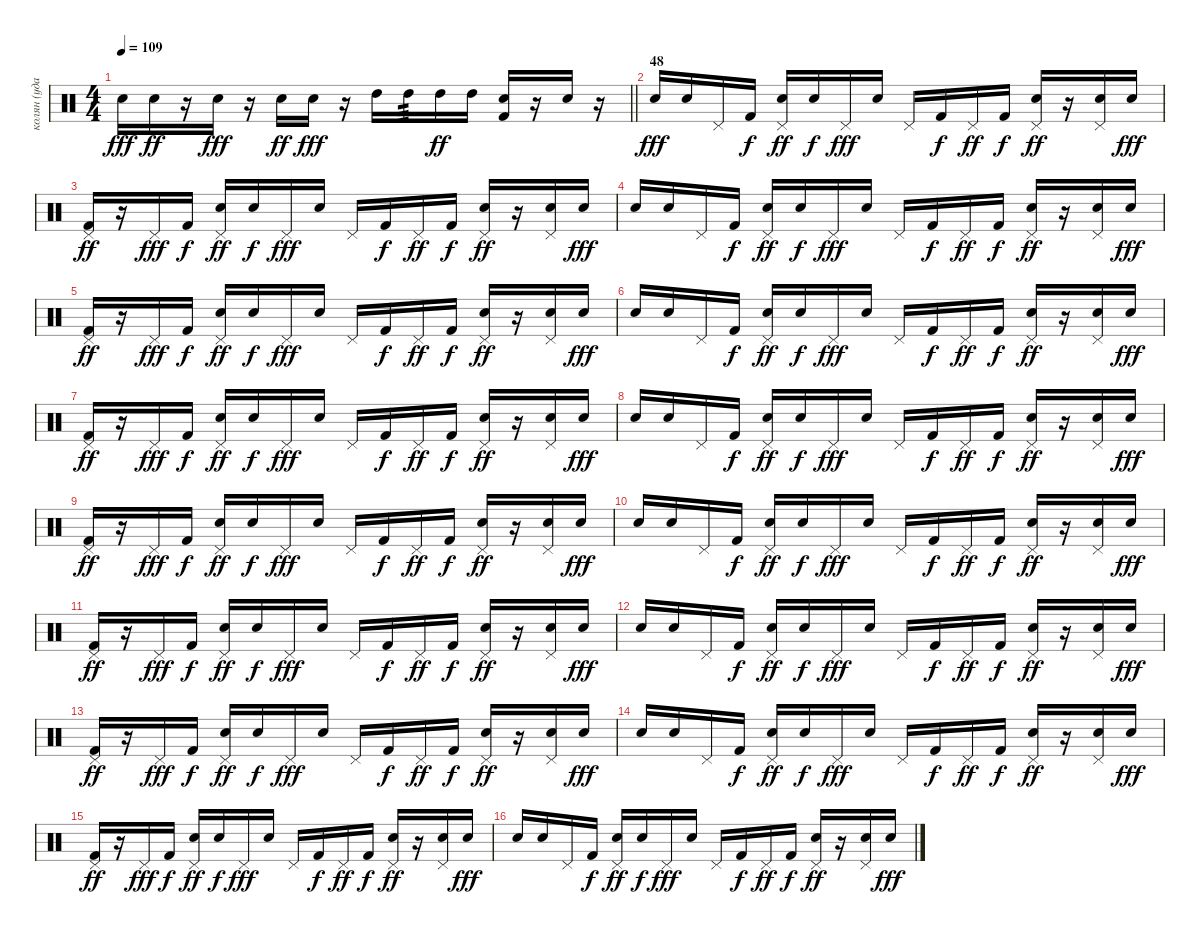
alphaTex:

\track ("колян (ударные) v2.0" "колян (уда") {instrument percussion}
\staff
\articulation defaults
\ts (4 4)
\tempo 109
\clef neutral
\barLineRight lightlight
\ks c "Electric Snare (hit)".16{dy fff} "Electric Snare (hit)".16{dy ff}
r.16 "Electric Snare (hit)".16{dy fff} r.16 "Electric Snare (hit)".16{dy ff} "Electric Snare (hit)".16{dy fff} r.16 "High Tom (hit)".16 "High Tom (hit)".16{tp 3} "High Tom (hit)".16{dy ff} "High Tom (hit)".16 ("Snare (hit) 2" "Kick (hit) 2").16 r.16 "Electric Snare (hit)".16 r.16 |
\section ("" "48")
"Snare (hit) 2".16{dy fff} "Snare (hit) 2".16 "Pedal Hi-Hat (hit)".16 "Kick (hit) 2".16{dy f} ("Snare (hit) 2" "Pedal Hi-Hat (hit)").16{dy ff} "Snare (hit) 2".16{dy f} "Pedal Hi-Hat (hit)".16{dy fff} "Snare (hit) 2".16 "Pedal Hi-Hat (hit)".16 "Kick (hit) 2".16{dy f} "Pedal Hi-Hat (hit)".16{dy ff} "Kick (hit) 2".16{dy f} ("Snare (hit) 2" "Pedal Hi-Hat (hit)").16{dy ff} r.16 ("Snare (hit) 2" "Pedal Hi-Hat (hit)").16 "Snare (hit) 2".16{dy fff} |
("Pedal Hi-Hat (hit)" "Kick (hit) 2").16{dy ff} r.16 "Pedal Hi-Hat (hit)".16{dy fff} "Kick (hit) 2".16{dy f} ("Snare (hit) 2" "Pedal Hi-Hat (hit)").16{dy ff} "Snare (hit) 2".16{dy f} "Pedal Hi-Hat (hit)".16{dy fff} "Snare (hit) 2".16 "Pedal Hi-Hat (hit)".16 "Kick (hit) 2".16{dy f} "Pedal Hi-Hat (hit)".16{dy ff} "Kick (hit) 2".16{dy f} ("Snare (hit) 2" "Pedal Hi-Hat (hit)").16{dy ff} r.16 ("Snare (hit) 2" "Pedal Hi-Hat (hit)").16 "Snare (hit) 2".16{dy fff} |
"Snare (hit) 2".16 "Snare (hit) 2".16 "Pedal Hi-Hat (hit)".16 "Kick (hit) 2".16{dy f} ("Snare (hit) 2" "Pedal Hi-Hat (hit)").16{dy ff} "Snare (hit) 2".16{dy f} "Pedal Hi-Hat (hit)".16{dy fff} "Snare (hit) 2".16 "Pedal Hi-Hat (hit)".16 "Kick (hit) 2".16{dy f} "Pedal Hi-Hat (hit)".16{dy ff} "Kick (hit) 2".16{dy f} ("Snare (hit) 2" "Pedal Hi-Hat (hit)").16{dy ff} r.16 ("Snare (hit) 2" "Pedal Hi-Hat (hit)").16 "Snare (hit) 2".16{dy fff} |
("Pedal Hi-Hat (hit)" "Kick (hit) 2").16{dy ff} r.16 "Pedal Hi-Hat (hit)".16{dy fff} "Kick (hit) 2".16{dy f} ("Snare (hit) 2" "Pedal Hi-Hat (hit)").16{dy ff} "Snare (hit) 2".16{dy f} "Pedal Hi-Hat (hit)".16{dy fff} "Snare (hit) 2".16 "Pedal Hi-Hat (hit)".16 "Kick (hit) 2".16{dy f} "Pedal Hi-Hat (hit)".16{dy ff} "Kick (hit) 2".16{dy f} ("Snare (hit) 2" "Pedal Hi-Hat (hit)").16{dy ff} r.16 ("Snare (hit) 2" "Pedal Hi-Hat (hit)").16 "Snare (hit) 2".16{dy fff} |
"Snare (hit) 2".16 "Snare (hit) 2".16 "Pedal Hi-Hat (hit)".16 "Kick (hit) 2".16{dy f} ("Snare (hit) 2" "Pedal Hi-Hat (hit)").16{dy ff} "Snare (hit) 2".16{dy f} "Pedal Hi-Hat (hit)".16{dy fff} "Snare (hit) 2".16 "Pedal Hi-Hat (hit)".16 "Kick (hit) 2".16{dy f} "Pedal Hi-Hat (hit)".16{dy ff} "Kick (hit) 2".16{dy f} ("Snare (hit) 2" "Pedal Hi-Hat (hit)").16{dy ff} r.16 ("Snare (hit) 2" "Pedal Hi-Hat (hit)").16 "Snare (hit) 2".16{dy fff} |
("Pedal Hi-Hat (hit)" "Kick (hit) 2").16{dy ff} r.16 "Pedal Hi-Hat (hit)".16{dy fff} "Kick (hit) 2".16{dy f} ("Snare (hit) 2" "Pedal Hi-Hat (hit)").16{dy ff} "Snare (hit) 2".16{dy f} "Pedal Hi-Hat (hit)".16{dy fff} "Snare (hit) 2".16 "Pedal Hi-Hat (hit)".16 "Kick (hit) 2".16{dy f} "Pedal Hi-Hat (hit)".16{dy ff} "Kick (hit) 2".16{dy f} ("Snare (hit) 2" "Pedal Hi-Hat (hit)").16{dy ff} r.16 ("Snare (hit) 2" "Pedal Hi-Hat (hit)").16 "Snare (hit) 2".16{dy fff} |
"Snare (hit) 2".16 "Snare (hit) 2".16 "Pedal Hi-Hat (hit)".16 "Kick (hit) 2".16{dy f} ("Snare (hit) 2" "Pedal Hi-Hat (hit)").16{dy ff} "Snare (hit) 2".16{dy f} "Pedal Hi-Hat (hit)".16{dy fff} "Snare (hit) 2".16 "Pedal Hi-Hat (hit)".16 "Kick (hit) 2".16{dy f} "Pedal Hi-Hat (hit)".16{dy ff} "Kick (hit) 2".16{dy f} ("Snare (hit) 2" "Pedal Hi-Hat (hit)").16{dy ff} r.16 ("Snare (hit) 2" "Pedal Hi-Hat (hit)").16 "Snare (hit) 2".16{dy fff} |
("Pedal Hi-Hat (hit)" "Kick (hit) 2").16{dy ff} r.16 "Pedal Hi-Hat (hit)".16{dy fff} "Kick (hit) 2".16{dy f} ("Snare (hit) 2" "Pedal Hi-Hat (hit)").16{dy ff} "Snare (hit) 2".16{dy f} "Pedal Hi-Hat (hit)".16{dy fff} "Snare (hit) 2".16 "Pedal Hi-Hat (hit)".16 "Kick (hit) 2".16{dy f} "Pedal Hi-Hat (hit)".16{dy ff} "Kick (hit) 2".16{dy f} ("Snare (hit) 2" "Pedal Hi-Hat (hit)").16{dy ff} r.16 ("Snare (hit) 2" "Pedal Hi-Hat (hit)").16 "Snare (hit) 2".16{dy fff} |
"Snare (hit) 2".16 "Snare (hit) 2".16 "Pedal Hi-Hat (hit)".16 "Kick (hit) 2".16{dy f} ("Snare (hit) 2" "Pedal Hi-Hat (hit)").16{dy ff} "Snare (hit) 2".16{dy f} "Pedal Hi-Hat (hit)".16{dy fff} "Snare (hit) 2".16 "Pedal Hi-Hat (hit)".16 "Kick (hit) 2".16{dy f} "Pedal Hi-Hat (hit)".16{dy ff} "Kick (hit) 2".16{dy f} ("Snare (hit) 2" "Pedal Hi-Hat (hit)").16{dy ff} r.16 ("Snare (hit) 2" "Pedal Hi-Hat (hit)").16 "Snare (hit) 2".16{dy fff} |
("Pedal Hi-Hat (hit)" "Kick (hit) 2").16{dy ff} r.16 "Pedal Hi-Hat (hit)".16{dy fff} "Kick (hit) 2".16{dy f} ("Snare (hit) 2" "Pedal Hi-Hat (hit)").16{dy ff} "Snare (hit) 2".16{dy f} "Pedal Hi-Hat (hit)".16{dy fff} "Snare (hit) 2".16 "Pedal Hi-Hat (hit)".16 "Kick (hit) 2".16{dy f} "Pedal Hi-Hat (hit)".16{dy ff} "Kick (hit) 2".16{dy f} ("Snare (hit) 2" "Pedal Hi-Hat (hit)").16{dy ff} r.16 ("Snare (hit) 2" "Pedal Hi-Hat (hit)").16 "Snare (hit) 2".16{dy fff} |
"Snare (hit) 2".16 "Snare (hit) 2".16 "Pedal Hi-Hat (hit)".16 "Kick (hit) 2".16{dy f} ("Snare (hit) 2" "Pedal Hi-Hat (hit)").16{dy ff} "Snare (hit) 2".16{dy f} "Pedal Hi-Hat (hit)".16{dy fff} "Snare (hit) 2".16 "Pedal Hi-Hat (hit)".16 "Kick (hit) 2".16{dy f} "Pedal Hi-Hat (hit)".16{dy ff} "Kick (hit) 2".16{dy f} ("Snare (hit) 2" "Pedal Hi-Hat (hit)").16{dy ff} r.16 ("Snare (hit) 2" "Pedal Hi-Hat (hit)").16 "Snare (hit) 2".16{dy fff} |
("Pedal Hi-Hat (hit)" "Kick (hit) 2").16{dy ff} r.16 "Pedal Hi-Hat (hit)".16{dy fff} "Kick (hit) 2".16{dy f} ("Snare (hit) 2" "Pedal Hi-Hat (hit)").16{dy ff} "Snare (hit) 2".16{dy f} "Pedal Hi-Hat (hit)".16{dy fff} "Snare (hit) 2".16 "Pedal Hi-Hat (hit)".16 "Kick (hit) 2".16{dy f} "Pedal Hi-Hat (hit)".16{dy ff} "Kick (hit) 2".16{dy f} ("Snare (hit) 2" "Pedal Hi-Hat (hit)").16{dy ff} r.16 ("Snare (hit) 2" "Pedal Hi-Hat (hit)").16 "Snare (hit) 2".16{dy fff} |
"Snare (hit) 2".16 "Snare (hit) 2".16 "Pedal Hi-Hat (hit)".16 "Kick (hit) 2".16{dy f} ("Snare (hit) 2" "Pedal Hi-Hat (hit)").16{dy ff} "Snare (hit) 2".16{dy f} "Pedal Hi-Hat (hit)".16{dy fff} "Snare (hit) 2".16 "Pedal Hi-Hat (hit)".16 "Kick (hit) 2".16{dy f} "Pedal Hi-Hat (hit)".16{dy ff} "Kick (hit) 2".16{dy f} ("Snare (hit) 2" "Pedal Hi-Hat (hit)").16{dy ff} r.16 ("Snare (hit) 2" "Pedal Hi-Hat (hit)").16 "Snare (hit) 2".16{dy fff} |
("Pedal Hi-Hat (hit)" "Kick (hit) 2").16{dy ff} r.16 "Pedal Hi-Hat (hit)".16{dy fff} "Kick (hit) 2".16{dy f} ("Snare (hit) 2" "Pedal Hi-Hat (hit)").16{dy ff} "Snare (hit) 2".16{dy f} "Pedal Hi-Hat (hit)".16{dy fff} "Snare (hit) 2".16 "Pedal Hi-Hat (hit)".16 "Kick (hit) 2".16{dy f} "Pedal Hi-Hat (hit)".16{dy ff} "Kick (hit) 2".16{dy f} ("Snare (hit) 2" "Pedal Hi-Hat (hit)").16{dy ff} r.16 ("Snare (hit) 2" "Pedal Hi-Hat (hit)").16 "Snare (hit) 2".16{dy fff} |
"Snare (hit) 2".16 "Snare (hit) 2".16 "Pedal Hi-Hat (hit)".16 "Kick (hit) 2".16{dy f} ("Snare (hit) 2" "Pedal Hi-Hat (hit)").16{dy ff} "Snare (hit) 2".16{dy f} "Pedal Hi-Hat (hit)".16{dy fff} "Snare (hit) 2".16 "Pedal Hi-Hat (hit)".16 "Kick (hit) 2".16{dy f} "Pedal Hi-Hat (hit)".16{dy ff} "Kick (hit) 2".16{dy f} ("Snare (hit) 2" "Pedal Hi-Hat (hit)").16{dy ff} r.16 ("Snare (hit) 2" "Pedal Hi-Hat (hit)").16 "Snare (hit) 2".16{dy fff}
